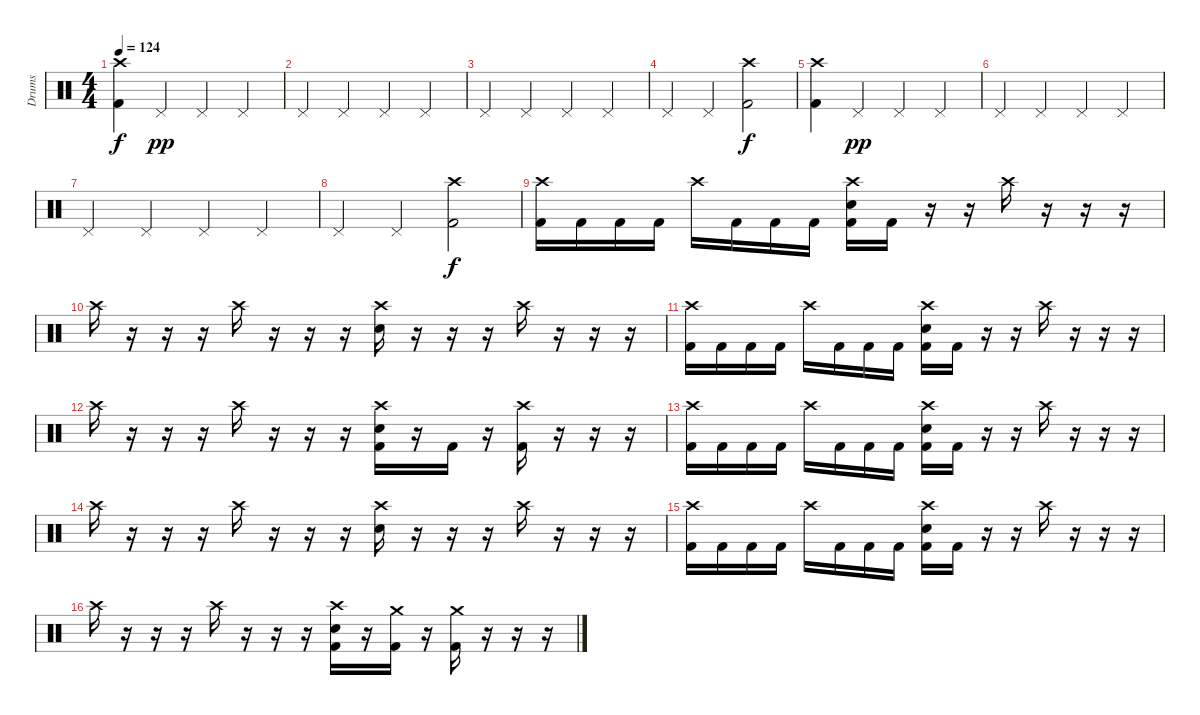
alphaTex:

\track ("Drums" "Drums") {instrument percussion}
\staff {score}
\articulation defaults
\ts (4 4)
\tempo 124
\clef neutral
\ks c
("Crash high (hit)" "Kick (hit) 2").4{dy f} "Pedal Hi-Hat (hit)".4{dy pp} "Pedal Hi-Hat (hit)".4 "Pedal Hi-Hat (hit)".4 |
"Pedal Hi-Hat (hit)".4 "Pedal Hi-Hat (hit)".4 "Pedal Hi-Hat (hit)".4 "Pedal Hi-Hat (hit)".4 |
"Pedal Hi-Hat (hit)".4 "Pedal Hi-Hat (hit)".4 "Pedal Hi-Hat (hit)".4 "Pedal Hi-Hat (hit)".4 |
"Pedal Hi-Hat (hit)".4 "Pedal Hi-Hat (hit)".4 ("Crash high (hit)" "Kick (hit) 2").2{dy f} |
("Crash high (hit)" "Kick (hit) 2").4 "Pedal Hi-Hat (hit)".4{dy pp} "Pedal Hi-Hat (hit)".4 "Pedal Hi-Hat (hit)".4 |
"Pedal Hi-Hat (hit)".4 "Pedal Hi-Hat (hit)".4 "Pedal Hi-Hat (hit)".4 "Pedal Hi-Hat (hit)".4 |
"Pedal Hi-Hat (hit)".4 "Pedal Hi-Hat (hit)".4 "Pedal Hi-Hat (hit)".4 "Pedal Hi-Hat (hit)".4 |
"Pedal Hi-Hat (hit)".4 "Pedal Hi-Hat (hit)".4 ("Crash high (hit)" "Kick (hit) 2").2{dy f} |
("Crash high (hit)" "Kick (hit) 2").16 "Kick (hit) 2".16 "Kick (hit) 2".16 "Kick (hit) 2".16 "Crash high (hit)".16 "Kick (hit) 2".16 "Kick (hit) 2".16 "Kick (hit) 2".16 ("Crash high (hit)" "Electric Snare (hit)" "Kick (hit) 2").16 "Kick (hit) 2".16 r.16 r.16 "Crash high (hit)".16 r.16 r.16 r.16 |
"Crash high (hit)".16 r.16 r.16 r.16 "Crash high (hit)".16 r.16 r.16 r.16 ("Crash high (hit)" "Electric Snare (hit)").16 r.16 r.16 r.16 "Crash high (hit)".16 r.16 r.16 r.16 |
("Crash high (hit)" "Kick (hit) 2").16 "Kick (hit) 2".16 "Kick (hit) 2".16 "Kick (hit) 2".16 "Crash high (hit)".16 "Kick (hit) 2".16 "Kick (hit) 2".16 "Kick (hit) 2".16 ("Crash high (hit)" "Electric Snare (hit)" "Kick (hit) 2").16 "Kick (hit) 2".16 r.16 r.16 "Crash high (hit)".16 r.16 r.16 r.16 |
"Crash high (hit)".16 r.16 r.16 r.16 "Crash high (hit)".16 r.16 r.16 r.16 ("Crash high (hit)" "Electric Snare (hit)" "Kick (hit) 2").16 r.16 "Kick (hit) 2".16 r.16 ("Crash high (hit)" "Kick (hit) 2").16 r.16 r.16 r.16 |
("Crash high (hit)" "Kick (hit) 2").16 "Kick (hit) 2".16 "Kick (hit) 2".16 "Kick (hit) 2".16 "Crash high (hit)".16 "Kick (hit) 2".16 "Kick (hit) 2".16 "Kick (hit) 2".16 ("Crash high (hit)" "Electric Snare (hit)" "Kick (hit) 2").16 "Kick (hit) 2".16 r.16 r.16 "Crash high (hit)".16 r.16 r.16 r.16 |
"Crash high (hit)".16 r.16 r.16 r.16 "Crash high (hit)".16 r.16 r.16 r.16 ("Crash high (hit)" "Electric Snare (hit)").16 r.16 r.16 r.16 "Crash high (hit)".16 r.16 r.16 r.16 |
("Crash high (hit)" "Kick (hit) 2").16 "Kick (hit) 2".16 "Kick (hit) 2".16 "Kick (hit) 2".16 "Crash high (hit)".16 "Kick (hit) 2".16 "Kick (hit) 2".16 "Kick (hit) 2".16 ("Crash high (hit)" "Electric Snare (hit)" "Kick (hit) 2").16 "Kick (hit) 2".16 r.16 r.16 "Crash high (hit)".16 r.16 r.16 r.16 |
"Crash high (hit)".16 r.16 r.16 r.16 "Crash high (hit)".16 r.16 r.16 r.16 ("Crash high (hit)" "Electric Snare (hit)" "Kick (hit) 2").16 r.16 ("Crash medium (hit)" "Kick (hit) 2").16 r.16 ("Crash medium (hit)" "Kick (hit) 2").16 r.16 r.16 r.16
